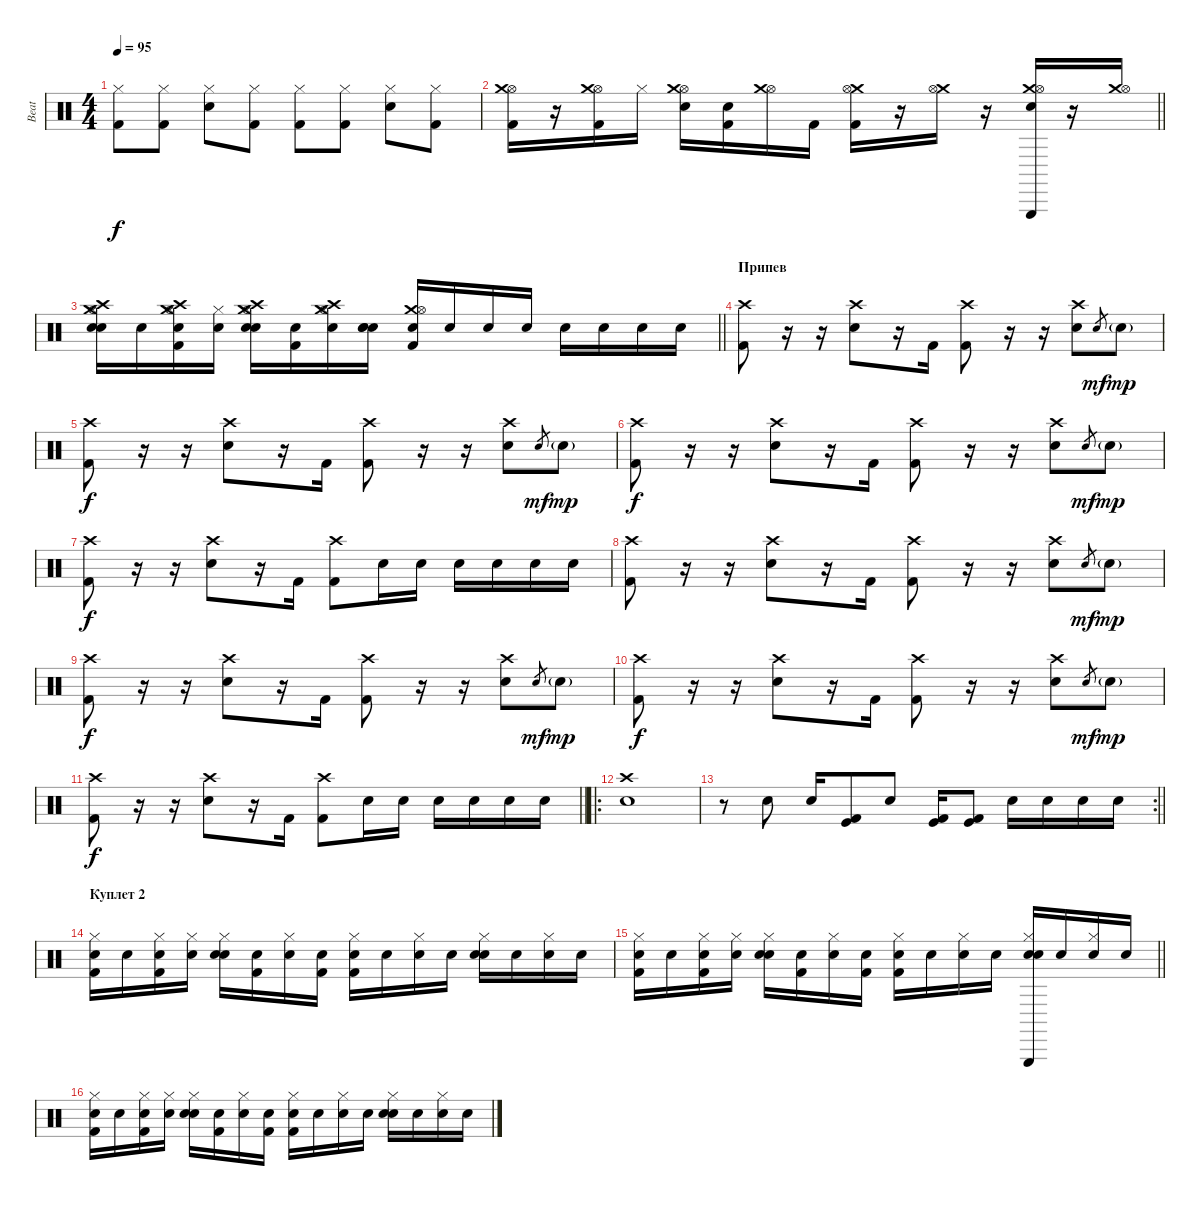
\track ("Beat" "Beat") {instrument percussion}
\staff {score}
\articulation defaults
\ts (4 4)
\tempo 95
\clef neutral
\ks c
("Hi-Hat (closed)" "Kick (hit) 2").8{dy f} ("Hi-Hat (closed)" "Kick (hit) 2").8 ("Hi-Hat (closed)" "Snare (hit) 2").8 ("Hi-Hat (closed)" "Kick (hit) 2").8 ("Hi-Hat (closed)" "Kick (hit) 2").8 ("Hi-Hat (closed)" "Kick (hit) 2").8 ("Hi-Hat (closed)" "Snare (hit) 2").8 ("Hi-Hat (closed)" "Kick (hit) 2").8 |
\barLineRight lightlight
("Hi-Hat (open)" "Crash medium (hit)" "Kick (hit) 2").16 r.16 ("Hi-Hat (open)" "Crash medium (hit)" "Kick (hit) 2").16 "Hi-Hat (closed)".16 ("Hi-Hat (open)" "Crash medium (hit)" "Electric Snare (hit)").16 ("Snare (hit)" "Kick (hit) 2").16 ("Hi-Hat (open)" "Crash medium (hit)").16 "Kick (hit) 2".16 ("Crash medium (hit)" "Kick (hit) 2" "Hi-Hat (open)").16 r.16 ("Crash medium (hit)" "Hi-Hat (open)").16 r.16 ("Triangle (hit)" "Crash medium (hit)" "Electric Snare (hit)" "Hi-Hat (open)").16 r.16 ("Crash medium (hit)" "Hi-Hat (open)").16 |
\barLineRight lightlight
("Snare (hit)"{x} "Crash medium (hit)" "Crash high (hit)" "Electric Snare (hit)" "Hi-Hat (open)").16 "Snare (hit)"{x}.16 ("Snare (hit)"{x} "Crash medium (hit)" "Crash high (hit)" "Kick (hit) 2" "Hi-Hat (open)").16 ("Snare (hit)"{x} "Hi-Hat (closed)").16 ("Snare (hit)"{x} "Crash medium (hit)" "Crash high (hit)" "Electric Snare (hit)" "Hi-Hat (open)").16 ("Snare (hit)"{x} "Kick (hit) 2").16 ("Snare (hit)"{x} "Crash medium (hit)" "Crash high (hit)" "Hi-Hat (open)").16 ("Electric Snare (hit)" "Snare (hit) 2" "Electric Snare (hit)").16 ("Electric Snare (hit)" "Crash medium (hit)" "Kick (hit) 2" "Hi-Hat (open)").16 "Electric Snare (hit)".16 "Electric Snare (hit)".16 "Electric Snare (hit)".16 "Electric Snare (hit)".16 "Electric Snare (hit)".16 "Electric Snare (hit)".16 "Electric Snare (hit)".16 |
\section ("" "Припев")
("Crash high (hit)" "Kick (hit) 2").8 r.16 r.16 ("Crash high (hit)" "Electric Snare (hit)").8 r.16 "Kick (hit) 2".16 ("Crash high (hit)" "Kick (hit) 2").8 r.16 r.16 ("Crash high (hit)" "Electric Snare (hit)").8 "Electric Snare (hit)".8{gr dy mf} "Electric Snare (hit)"{g}.8{dy mp} |
("Crash high (hit)" "Kick (hit) 2").8{dy f} r.16 r.16 ("Crash high (hit)" "Electric Snare (hit)").8 r.16 "Kick (hit) 2".16 ("Crash high (hit)" "Kick (hit) 2").8 r.16 r.16 ("Crash high (hit)" "Electric Snare (hit)").8 "Electric Snare (hit)".8{gr dy mf} "Electric Snare (hit)"{g}.8{dy mp} |
("Crash high (hit)" "Kick (hit) 2").8{dy f} r.16 r.16 ("Crash high (hit)" "Electric Snare (hit)").8 r.16 "Kick (hit) 2".16 ("Crash high (hit)" "Kick (hit) 2").8 r.16 r.16 ("Crash high (hit)" "Electric Snare (hit)").8 "Electric Snare (hit)".8{gr dy mf} "Electric Snare (hit)"{g}.8{dy mp} |
("Crash high (hit)" "Kick (hit) 2").8{dy f} r.16 r.16 ("Crash high (hit)" "Electric Snare (hit)").8 r.16 "Kick (hit) 2".16 ("Crash high (hit)" "Kick (hit) 2").8 "Electric Snare (hit)".16 "Electric Snare (hit)".16 "Electric Snare (hit)".16 "Electric Snare (hit)".16 "Electric Snare (hit)".16 "Electric Snare (hit)".16 |
("Crash high (hit)" "Kick (hit) 2").8 r.16 r.16 ("Crash high (hit)" "Electric Snare (hit)").8 r.16 "Kick (hit) 2".16 ("Crash high (hit)" "Kick (hit) 2").8 r.16 r.16 ("Crash high (hit)" "Electric Snare (hit)").8 "Electric Snare (hit)".8{gr dy mf} "Electric Snare (hit)"{g}.8{dy mp} |
("Crash high (hit)" "Kick (hit) 2").8{dy f} r.16 r.16 ("Crash high (hit)" "Electric Snare (hit)").8 r.16 "Kick (hit) 2".16 ("Crash high (hit)" "Kick (hit) 2").8 r.16 r.16 ("Crash high (hit)" "Electric Snare (hit)").8 "Electric Snare (hit)".8{gr dy mf} "Electric Snare (hit)"{g}.8{dy mp} |
("Crash high (hit)" "Kick (hit) 2").8{dy f} r.16 r.16 ("Crash high (hit)" "Electric Snare (hit)").8 r.16 "Kick (hit) 2".16 ("Crash high (hit)" "Kick (hit) 2").8 r.16 r.16 ("Crash high (hit)" "Electric Snare (hit)").8 "Electric Snare (hit)".8{gr dy mf} "Electric Snare (hit)"{g}.8{dy mp} |
\barLineRight lightlight
("Crash high (hit)" "Kick (hit) 2").8{dy f} r.16 r.16 ("Crash high (hit)" "Electric Snare (hit)").8 r.16 "Kick (hit) 2".16 ("Crash high (hit)" "Kick (hit) 2").8 "Electric Snare (hit)".16 "Electric Snare (hit)".16 "Electric Snare (hit)".16 "Electric Snare (hit)".16 "Electric Snare (hit)".16 "Electric Snare (hit)".16 |
\ro
("Snare (hit) 2" "Crash high (hit)").1 |
\rc 2
\barLineRight lightlight
r.8 "Electric Snare (hit)".8 "Electric Snare (hit)".16 ("Kick (hit) 2" "Kick (hit)").8 "Electric Snare (hit)".8 ("Kick (hit) 2" "Kick (hit)").16 ("Kick (hit) 2" "Kick (hit)").8 "Electric Snare (hit)".16 "Electric Snare (hit)".16 "Electric Snare (hit)".16 "Electric Snare (hit)".16 |
\section ("" "Куплет 2")
("Snare (hit)"{x} "Kick (hit) 2" "Hi-Hat (closed)").16 "Snare (hit)"{x}.16 ("Snare (hit)"{x} "Kick (hit) 2" "Hi-Hat (closed)").16 ("Snare (hit)"{x} "Hi-Hat (closed)").16 ("Snare (hit)"{x} "Electric Snare (hit)" "Hi-Hat (closed)").16 ("Snare (hit)"{x} "Kick (hit) 2").16 ("Snare (hit)"{x} "Hi-Hat (closed)").16 ("Snare (hit)"{x} "Kick (hit) 2").16 ("Snare (hit)"{x} "Kick (hit) 2" "Hi-Hat (closed)").16 "Snare (hit)"{x}.16 ("Snare (hit)"{x} "Hi-Hat (closed)").16 "Snare (hit)"{x}.16 ("Snare (hit)"{x} "Electric Snare (hit)" "Hi-Hat (closed)").16 "Snare (hit)"{x}.16 ("Snare (hit)"{x} "Hi-Hat (closed)").16 "Snare (hit)"{x}.16 |
\barLineRight lightlight
("Snare (hit)"{x} "Kick (hit) 2" "Hi-Hat (closed)").16 "Snare (hit)"{x}.16 ("Snare (hit)"{x} "Kick (hit) 2" "Hi-Hat (closed)").16 ("Snare (hit)"{x} "Hi-Hat (closed)").16 ("Snare (hit)"{x} "Electric Snare (hit)" "Hi-Hat (closed)").16 ("Snare (hit)"{x} "Kick (hit) 2").16 ("Snare (hit)"{x} "Hi-Hat (closed)").16 ("Snare (hit)"{x} "Kick (hit) 2").16 ("Snare (hit)"{x} "Kick (hit) 2" "Hi-Hat (closed)").16 "Snare (hit)"{x}.16 ("Snare (hit)"{x} "Hi-Hat (closed)").16 "Snare (hit)"{x}.16 ("Snare (hit)"{x} "Triangle (hit)" "Electric Snare (hit)" "Hi-Hat (closed)").16 "Snare (hit)"{x}.16 ("Snare (hit)"{x} "Hi-Hat (closed)").16 "Snare (hit)"{x}.16 |
("Snare (hit)"{x} "Kick (hit) 2" "Hi-Hat (closed)").16 "Snare (hit)"{x}.16 ("Snare (hit)"{x} "Kick (hit) 2" "Hi-Hat (closed)").16 ("Snare (hit)"{x} "Hi-Hat (closed)").16 ("Snare (hit)"{x} "Electric Snare (hit)" "Hi-Hat (closed)").16 ("Snare (hit)"{x} "Kick (hit) 2").16 ("Snare (hit)"{x} "Hi-Hat (closed)").16 ("Snare (hit)"{x} "Kick (hit) 2").16 ("Snare (hit)"{x} "Kick (hit) 2" "Hi-Hat (closed)").16 "Snare (hit)"{x}.16 ("Snare (hit)"{x} "Hi-Hat (closed)").16 "Snare (hit)"{x}.16 ("Snare (hit)"{x} "Electric Snare (hit)" "Hi-Hat (closed)").16 "Snare (hit)"{x}.16 ("Snare (hit)"{x} "Hi-Hat (closed)").16 "Snare (hit)"{x}.16
